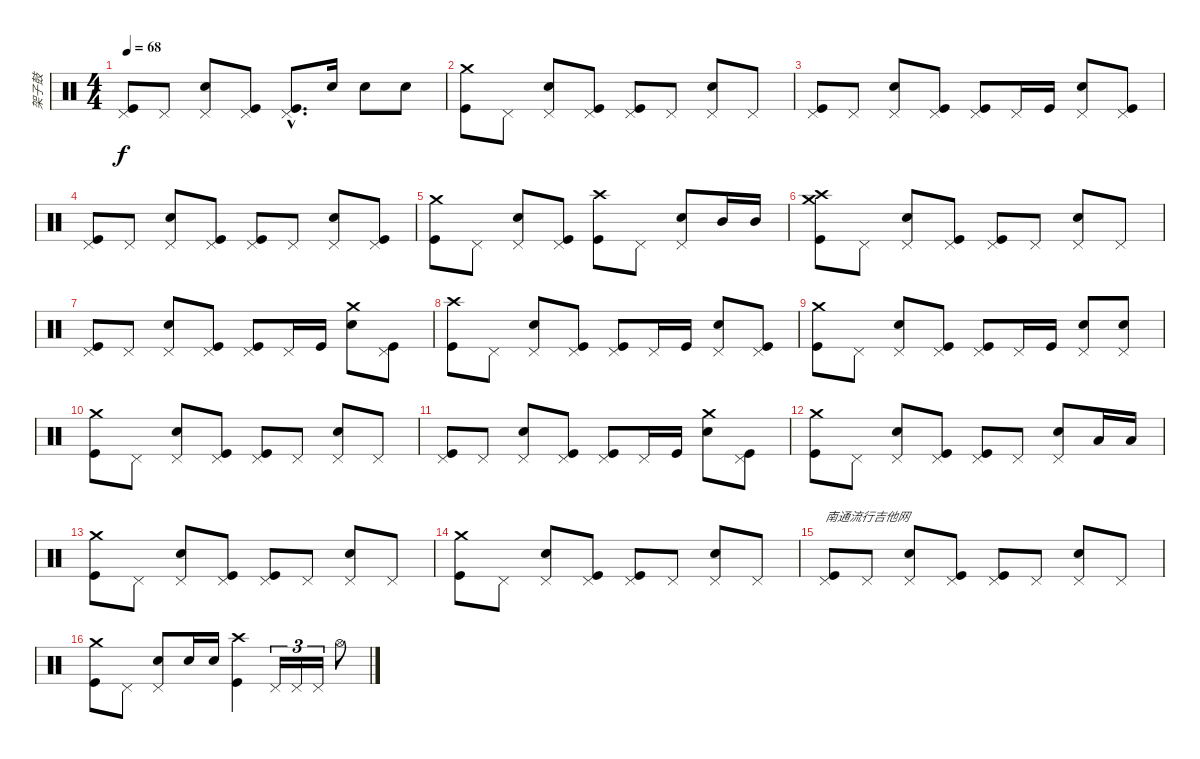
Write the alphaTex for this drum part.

\track ("架子鼓" "架子鼓") {instrument percussion}
\staff {score}
\articulation defaults
\ts (4 4)
\tempo 68
\clef neutral
\ks c
("Pedal Hi-Hat (hit)" "Kick (hit)").8{dy f} "Pedal Hi-Hat (hit)".8 ("Pedal Hi-Hat (hit)" "Snare (hit) 2").8 ("Pedal Hi-Hat (hit)" "Kick (hit)").8 ("Pedal Hi-Hat (hit)"{hac} "Kick (hit)"{hac}).8{d} "Snare (hit) 2".16 "Snare (hit) 2".8 "Snare (hit) 2".8 |
("Crash medium (hit)" "Kick (hit)").8 "Pedal Hi-Hat (hit)".8 ("Pedal Hi-Hat (hit)" "Snare (hit) 2").8 ("Pedal Hi-Hat (hit)" "Kick (hit)").8 ("Pedal Hi-Hat (hit)" "Kick (hit)").8 "Pedal Hi-Hat (hit)".8 ("Pedal Hi-Hat (hit)" "Snare (hit) 2").8 "Pedal Hi-Hat (hit)".8 |
("Pedal Hi-Hat (hit)" "Kick (hit)").8 "Pedal Hi-Hat (hit)".8 ("Pedal Hi-Hat (hit)" "Snare (hit) 2").8 ("Pedal Hi-Hat (hit)" "Kick (hit)").8 ("Pedal Hi-Hat (hit)" "Kick (hit)").8 "Pedal Hi-Hat (hit)".16 "Kick (hit)".16 ("Pedal Hi-Hat (hit)" "Snare (hit) 2").8 ("Pedal Hi-Hat (hit)" "Kick (hit)").8 |
("Pedal Hi-Hat (hit)" "Kick (hit)").8 "Pedal Hi-Hat (hit)".8 ("Pedal Hi-Hat (hit)" "Snare (hit) 2").8 ("Pedal Hi-Hat (hit)" "Kick (hit)").8 ("Pedal Hi-Hat (hit)" "Kick (hit)").8 "Pedal Hi-Hat (hit)".8 ("Pedal Hi-Hat (hit)" "Snare (hit) 2").8 ("Pedal Hi-Hat (hit)" "Kick (hit)").8 |
("Crash medium (hit)" "Kick (hit)").8 "Pedal Hi-Hat (hit)".8 ("Pedal Hi-Hat (hit)" "Snare (hit) 2").8 ("Pedal Hi-Hat (hit)" "Kick (hit)").8 ("Crash high (hit)" "Kick (hit)").8 "Pedal Hi-Hat (hit)".8 ("Pedal Hi-Hat (hit)" "Snare (hit) 2").8 "Mid Tom (hit)".16 "Mid Tom (hit)".16 |
("Crash high (hit)" "Crash medium (hit)" "Kick (hit)").8 "Pedal Hi-Hat (hit)".8 ("Pedal Hi-Hat (hit)" "Snare (hit) 2").8 ("Pedal Hi-Hat (hit)" "Kick (hit)").8 ("Pedal Hi-Hat (hit)" "Kick (hit)").8 "Pedal Hi-Hat (hit)".8 ("Pedal Hi-Hat (hit)" "Snare (hit) 2").8 "Pedal Hi-Hat (hit)".8 |
("Pedal Hi-Hat (hit)" "Kick (hit)").8 "Pedal Hi-Hat (hit)".8 ("Pedal Hi-Hat (hit)" "Snare (hit) 2").8 ("Pedal Hi-Hat (hit)" "Kick (hit)").8 ("Pedal Hi-Hat (hit)" "Kick (hit)").8 "Pedal Hi-Hat (hit)".16 "Kick (hit)".16 ("Crash medium (hit)" "Snare (hit) 2").8 ("Pedal Hi-Hat (hit)" "Kick (hit)").8 |
("Crash high (hit)" "Kick (hit)").8 "Pedal Hi-Hat (hit)".8 ("Pedal Hi-Hat (hit)" "Snare (hit) 2").8 ("Pedal Hi-Hat (hit)" "Kick (hit)").8 ("Pedal Hi-Hat (hit)" "Kick (hit)").8 "Pedal Hi-Hat (hit)".16 "Kick (hit)".16 ("Pedal Hi-Hat (hit)" "Snare (hit) 2").8 ("Pedal Hi-Hat (hit)" "Kick (hit)").8 |
("Crash medium (hit)" "Kick (hit)").8 "Pedal Hi-Hat (hit)".8 ("Pedal Hi-Hat (hit)" "Snare (hit) 2").8 ("Pedal Hi-Hat (hit)" "Kick (hit)").8 ("Pedal Hi-Hat (hit)" "Kick (hit)").8 "Pedal Hi-Hat (hit)".16 "Kick (hit)".16 ("Pedal Hi-Hat (hit)" "Snare (hit) 2").8 ("Pedal Hi-Hat (hit)" "Snare (hit) 2").8 |
("Crash medium (hit)" "Kick (hit)").8 "Pedal Hi-Hat (hit)".8 ("Pedal Hi-Hat (hit)" "Snare (hit) 2").8 ("Pedal Hi-Hat (hit)" "Kick (hit)").8 ("Pedal Hi-Hat (hit)" "Kick (hit)").8 "Pedal Hi-Hat (hit)".8 ("Pedal Hi-Hat (hit)" "Snare (hit) 2").8 "Pedal Hi-Hat (hit)".8 |
("Pedal Hi-Hat (hit)" "Kick (hit)").8 "Pedal Hi-Hat (hit)".8 ("Pedal Hi-Hat (hit)" "Snare (hit) 2").8 ("Pedal Hi-Hat (hit)" "Kick (hit)").8 ("Pedal Hi-Hat (hit)" "Kick (hit)").8 "Pedal Hi-Hat (hit)".16 "Kick (hit)".16 ("Crash medium (hit)" "Snare (hit) 2").8 ("Pedal Hi-Hat (hit)" "Kick (hit)").8 |
("Crash medium (hit)" "Kick (hit)").8 "Pedal Hi-Hat (hit)".8 ("Pedal Hi-Hat (hit)" "Snare (hit) 2").8 ("Pedal Hi-Hat (hit)" "Kick (hit)").8 ("Pedal Hi-Hat (hit)" "Kick (hit)").8 "Pedal Hi-Hat (hit)".8 ("Pedal Hi-Hat (hit)" "Snare (hit) 2").8 "Low Tom (hit)".16 "Low Tom (hit)".16 |
("Crash medium (hit)" "Kick (hit)").8 "Pedal Hi-Hat (hit)".8 ("Pedal Hi-Hat (hit)" "Snare (hit) 2").8 ("Pedal Hi-Hat (hit)" "Kick (hit)").8 ("Pedal Hi-Hat (hit)" "Kick (hit)").8 "Pedal Hi-Hat (hit)".8 ("Pedal Hi-Hat (hit)" "Snare (hit) 2").8 "Pedal Hi-Hat (hit)".8 |
("Crash medium (hit)" "Kick (hit)").8 "Pedal Hi-Hat (hit)".8 ("Pedal Hi-Hat (hit)" "Snare (hit) 2").8 ("Pedal Hi-Hat (hit)" "Kick (hit)").8 ("Pedal Hi-Hat (hit)" "Kick (hit)").8 "Pedal Hi-Hat (hit)".8 ("Pedal Hi-Hat (hit)" "Snare (hit) 2").8 "Pedal Hi-Hat (hit)".8 |
("Pedal Hi-Hat (hit)" "Kick (hit)").8{txt "南通流行吉他网"} "Pedal Hi-Hat (hit)".8 ("Pedal Hi-Hat (hit)" "Snare (hit) 2").8 ("Pedal Hi-Hat (hit)" "Kick (hit)").8 ("Pedal Hi-Hat (hit)" "Kick (hit)").8 "Pedal Hi-Hat (hit)".8 ("Pedal Hi-Hat (hit)" "Snare (hit) 2").8 "Pedal Hi-Hat (hit)".8 |
("Crash medium (hit)" "Kick (hit)").8 "Pedal Hi-Hat (hit)".8 ("Pedal Hi-Hat (hit)" "Snare (hit) 2").8 "Snare (hit) 2".16 "Snare (hit) 2".16 ("Crash high (hit)" "Kick (hit)").4 "Pedal Hi-Hat (hit)".16{tu (3 2)} "Pedal Hi-Hat (hit)".16{tu (3 2)} "Pedal Hi-Hat (hit)".16{tu (3 2)} "Hi-Hat (open)".8
